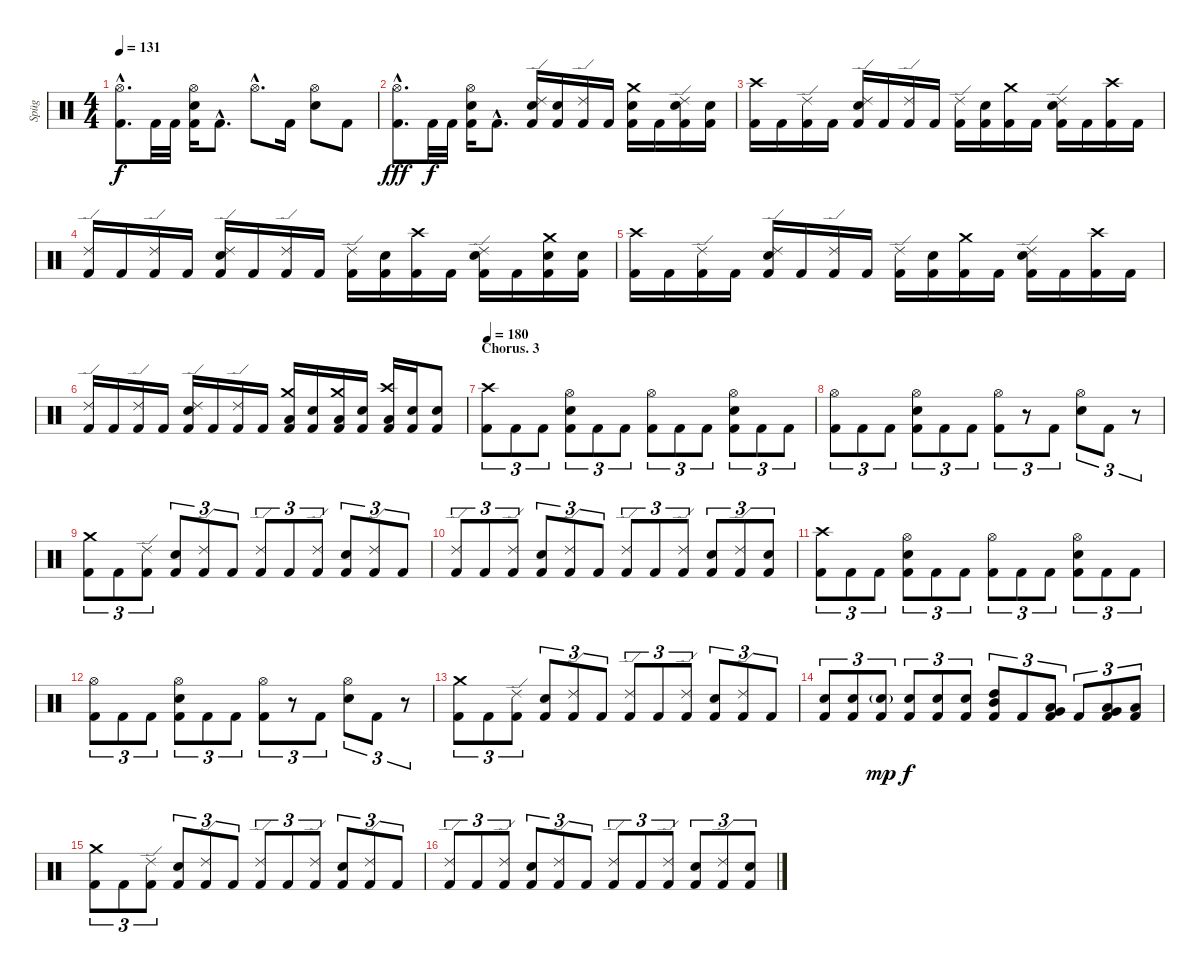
\track ("Spüg" "Spüg") {instrument percussion}
\staff {score}
\articulation defaults
\ts (4 4)
\tempo 131
\clef neutral
\ks c
("Hi-Hat (open)"{hac} "Kick (hit) 2"{hac}).8{d dy f} "Kick (hit) 2".32 "Kick (hit) 2".32 ("Hi-Hat (open)" "Electric Snare (hit)" "Kick (hit) 2").16 "Kick (hit) 2"{hac}.8{d} "Hi-Hat (open)"{hac}.8{d} "Kick (hit) 2".16 ("Hi-Hat (open)" "Electric Snare (hit)").8 "Kick (hit) 2".8 |
("Hi-Hat (open)"{hac} "Kick (hit) 2"{hac}).8{d dy fff} "Kick (hit) 2".32{dy f} "Kick (hit) 2".32 ("Hi-Hat (open)" "Electric Snare (hit)" "Kick (hit) 2").16 "Kick (hit) 2"{hac}.8{d} ("Ride (edge) 2" "Electric Snare (hit)" "Kick (hit) 2").16 ("Electric Snare (hit)" "Kick (hit) 2").16 ("Ride (edge) 2" "Kick (hit) 2").16 "Kick (hit) 2".16 ("Crash medium (hit)" "Electric Snare (hit)" "Kick (hit) 2").16 "Kick (hit) 2".16 ("Ride (edge) 2" "Electric Snare (hit)" "Kick (hit) 2").16 ("Electric Snare (hit)" "Kick (hit) 2").16 |
("Crash high (hit)" "Kick (hit) 2").16 "Kick (hit) 2".16 ("Ride (edge) 2" "Kick (hit) 2").16 "Kick (hit) 2".16 ("Ride (edge) 2" "Electric Snare (hit)" "Kick (hit) 2").16 "Kick (hit) 2".16 ("Ride (edge) 2" "Kick (hit) 2").16 "Kick (hit) 2".16 ("Ride (edge) 2" "Kick (hit) 2").16 ("Electric Snare (hit)" "Kick (hit) 2").16 ("Crash medium (hit)" "Kick (hit) 2").16 "Kick (hit) 2".16 ("Ride (edge) 2" "Electric Snare (hit)" "Kick (hit) 2").16 "Kick (hit) 2".16 ("Crash high (hit)" "Kick (hit) 2").16 "Kick (hit) 2".16 |
("Ride (edge) 2" "Kick (hit) 2").16 "Kick (hit) 2".16 ("Ride (edge) 2" "Kick (hit) 2").16 "Kick (hit) 2".16 ("Ride (edge) 2" "Electric Snare (hit)" "Kick (hit) 2").16 "Kick (hit) 2".16 ("Ride (edge) 2" "Kick (hit) 2").16 "Kick (hit) 2".16 ("Ride (edge) 2" "Kick (hit) 2").16 ("Electric Snare (hit)" "Kick (hit) 2").16 ("Crash high (hit)" "Kick (hit) 2").16 "Kick (hit) 2".16 ("Ride (edge) 2" "Electric Snare (hit)" "Kick (hit) 2").16 "Kick (hit) 2".16 ("Crash medium (hit)" "Electric Snare (hit)" "Kick (hit) 2").16 ("Electric Snare (hit)" "Kick (hit) 2").16 |
("Crash high (hit)" "Kick (hit) 2").16 "Kick (hit) 2".16 ("Ride (edge) 2" "Kick (hit) 2").16 "Kick (hit) 2".16 ("Ride (edge) 2" "Electric Snare (hit)" "Kick (hit) 2").16 "Kick (hit) 2".16 ("Ride (edge) 2" "Kick (hit) 2").16 "Kick (hit) 2".16 ("Ride (edge) 2" "Kick (hit) 2").16 ("Electric Snare (hit)" "Kick (hit) 2").16 ("Crash medium (hit)" "Kick (hit) 2").16 "Kick (hit) 2".16 ("Ride (edge) 2" "Electric Snare (hit)" "Kick (hit) 2").16 "Kick (hit) 2".16 ("Crash high (hit)" "Kick (hit) 2").16 "Kick (hit) 2".16 |
("Ride (edge) 2" "Kick (hit) 2").16 "Kick (hit) 2".16 ("Ride (edge) 2" "Kick (hit) 2").16 "Kick (hit) 2".16 ("Ride (edge) 2" "Electric Snare (hit)" "Kick (hit) 2").16 "Kick (hit) 2".16 ("Ride (edge) 2" "Kick (hit) 2").16 "Kick (hit) 2".16 ("Crash medium (hit)" "Low Floor Tom (hit)" "Kick (hit) 2").16 ("Electric Snare (hit)" "Kick (hit) 2").16 ("Crash medium (hit)" "Low Floor Tom (hit)" "Kick (hit) 2").16 ("Electric Snare (hit)" "Kick (hit) 2").16 ("Crash high (hit)" "Low Floor Tom (hit)" "Kick (hit) 2").16 ("Electric Snare (hit)" "Kick (hit) 2").16 ("Electric Snare (hit)" "Kick (hit) 2").8 |
\section ("" "Chorus. 3")
\tempo 180
("Crash high (hit)" "Kick (hit) 2").8{tu (3 2)} "Kick (hit) 2".8{tu (3 2)} "Kick (hit) 2".8{tu (3 2)} ("Hi-Hat (open)" "Electric Snare (hit)" "Kick (hit) 2").8{tu (3 2)} "Kick (hit) 2".8{tu (3 2)} "Kick (hit) 2".8{tu (3 2)} ("Hi-Hat (open)" "Kick (hit) 2").8{tu (3 2)} "Kick (hit) 2".8{tu (3 2)} "Kick (hit) 2".8{tu (3 2)} ("Hi-Hat (open)" "Electric Snare (hit)" "Kick (hit) 2").8{tu (3 2)} "Kick (hit) 2".8{tu (3 2)} "Kick (hit) 2".8{tu (3 2)} |
("Hi-Hat (open)" "Kick (hit) 2").8{tu (3 2)} "Kick (hit) 2".8{tu (3 2)} "Kick (hit) 2".8{tu (3 2)} ("Hi-Hat (open)" "Electric Snare (hit)" "Kick (hit) 2").8{tu (3 2)} "Kick (hit) 2".8{tu (3 2)} "Kick (hit) 2".8{tu (3 2)} ("Hi-Hat (open)" "Kick (hit) 2").8{tu (3 2)} r.8{tu (3 2)} "Kick (hit) 2".8{tu (3 2)} ("Hi-Hat (open)" "Electric Snare (hit)").8{tu (3 2)} "Kick (hit) 2".8{tu (3 2)} r.8{tu (3 2)} |
("Crash medium (hit)" "Kick (hit) 2").8{tu (3 2)} "Kick (hit) 2".8{tu (3 2)} ("Ride (edge) 2" "Kick (hit) 2").8{tu (3 2)} ("Electric Snare (hit)" "Kick (hit) 2").8{tu (3 2)} ("Ride (edge) 2" "Kick (hit) 2").8{tu (3 2)} "Kick (hit) 2".8{tu (3 2)} ("Ride (edge) 2" "Kick (hit) 2").8{tu (3 2)} "Kick (hit) 2".8{tu (3 2)} ("Ride (edge) 2" "Kick (hit) 2").8{tu (3 2)} ("Electric Snare (hit)" "Kick (hit) 2").8{tu (3 2)} ("Ride (edge) 2" "Kick (hit) 2").8{tu (3 2)} "Kick (hit) 2".8{tu (3 2)} |
("Ride (edge) 2" "Kick (hit) 2").8{tu (3 2)} "Kick (hit) 2".8{tu (3 2)} ("Ride (edge) 2" "Kick (hit) 2").8{tu (3 2)} ("Electric Snare (hit)" "Kick (hit) 2").8{tu (3 2)} ("Ride (edge) 2" "Kick (hit) 2").8{tu (3 2)} "Kick (hit) 2".8{tu (3 2)} ("Ride (edge) 2" "Kick (hit) 2").8{tu (3 2)} "Kick (hit) 2".8{tu (3 2)} ("Ride (edge) 2" "Kick (hit) 2").8{tu (3 2)} ("Electric Snare (hit)" "Kick (hit) 2").8{tu (3 2)} ("Ride (edge) 2" "Kick (hit) 2").8{tu (3 2)} ("Electric Snare (hit)" "Kick (hit) 2").8{tu (3 2)} |
("Crash high (hit)" "Kick (hit) 2").8{tu (3 2)} "Kick (hit) 2".8{tu (3 2)} "Kick (hit) 2".8{tu (3 2)} ("Hi-Hat (open)" "Electric Snare (hit)" "Kick (hit) 2").8{tu (3 2)} "Kick (hit) 2".8{tu (3 2)} "Kick (hit) 2".8{tu (3 2)} ("Hi-Hat (open)" "Kick (hit) 2").8{tu (3 2)} "Kick (hit) 2".8{tu (3 2)} "Kick (hit) 2".8{tu (3 2)} ("Hi-Hat (open)" "Electric Snare (hit)" "Kick (hit) 2").8{tu (3 2)} "Kick (hit) 2".8{tu (3 2)} "Kick (hit) 2".8{tu (3 2)} |
("Hi-Hat (open)" "Kick (hit) 2").8{tu (3 2)} "Kick (hit) 2".8{tu (3 2)} "Kick (hit) 2".8{tu (3 2)} ("Hi-Hat (open)" "Electric Snare (hit)" "Kick (hit) 2").8{tu (3 2)} "Kick (hit) 2".8{tu (3 2)} "Kick (hit) 2".8{tu (3 2)} ("Hi-Hat (open)" "Kick (hit) 2").8{tu (3 2)} r.8{tu (3 2)} "Kick (hit) 2".8{tu (3 2)} ("Hi-Hat (open)" "Electric Snare (hit)").8{tu (3 2)} "Kick (hit) 2".8{tu (3 2)} r.8{tu (3 2)} |
("Crash medium (hit)" "Kick (hit) 2").8{tu (3 2)} "Kick (hit) 2".8{tu (3 2)} ("Ride (edge) 2" "Kick (hit) 2").8{tu (3 2)} ("Electric Snare (hit)" "Kick (hit) 2").8{tu (3 2)} ("Ride (edge) 2" "Kick (hit) 2").8{tu (3 2)} "Kick (hit) 2".8{tu (3 2)} ("Ride (edge) 2" "Kick (hit) 2").8{tu (3 2)} "Kick (hit) 2".8{tu (3 2)} ("Ride (edge) 2" "Kick (hit) 2").8{tu (3 2)} ("Electric Snare (hit)" "Kick (hit) 2").8{tu (3 2)} ("Ride (edge) 2" "Kick (hit) 2").8{tu (3 2)} "Kick (hit) 2".8{tu (3 2)} |
("Electric Snare (hit)" "Kick (hit) 2").8{tu (3 2)} ("Electric Snare (hit)" "Kick (hit) 2").8{tu (3 2)} ("Electric Snare (hit)"{g} "Kick (hit) 2").8{tu (3 2) dy mp} ("Electric Snare (hit)" "Kick (hit) 2").8{tu (3 2) dy f} ("Electric Snare (hit)" "Kick (hit) 2").8{tu (3 2)} ("Electric Snare (hit)" "Kick (hit) 2").8{tu (3 2)} ("High Tom (hit)" "Mid Tom (hit)" "Kick (hit) 2").8{tu (3 2)} "Kick (hit) 2".8{tu (3 2)} ("Very Low Tom (hit)" "Low Tom (hit)" "Kick (hit) 2").8{tu (3 2)} "Kick (hit) 2".8{tu (3 2)} ("Very Low Tom (hit)" "Low Tom (hit)" "Kick (hit) 2").8{tu (3 2)} ("Low Floor Tom (hit)" "Kick (hit) 2").8{tu (3 2)} |
("Crash medium (hit)" "Kick (hit) 2").8{tu (3 2)} "Kick (hit) 2".8{tu (3 2)} ("Ride (edge) 2" "Kick (hit) 2").8{tu (3 2)} ("Electric Snare (hit)" "Kick (hit) 2").8{tu (3 2)} ("Ride (edge) 2" "Kick (hit) 2").8{tu (3 2)} "Kick (hit) 2".8{tu (3 2)} ("Ride (edge) 2" "Kick (hit) 2").8{tu (3 2)} "Kick (hit) 2".8{tu (3 2)} ("Ride (edge) 2" "Kick (hit) 2").8{tu (3 2)} ("Electric Snare (hit)" "Kick (hit) 2").8{tu (3 2)} ("Ride (edge) 2" "Kick (hit) 2").8{tu (3 2)} "Kick (hit) 2".8{tu (3 2)} |
("Ride (edge) 2" "Kick (hit) 2").8{tu (3 2)} "Kick (hit) 2".8{tu (3 2)} ("Ride (edge) 2" "Kick (hit) 2").8{tu (3 2)} ("Electric Snare (hit)" "Kick (hit) 2").8{tu (3 2)} ("Ride (edge) 2" "Kick (hit) 2").8{tu (3 2)} "Kick (hit) 2".8{tu (3 2)} ("Ride (edge) 2" "Kick (hit) 2").8{tu (3 2)} "Kick (hit) 2".8{tu (3 2)} ("Ride (edge) 2" "Kick (hit) 2").8{tu (3 2)} ("Electric Snare (hit)" "Kick (hit) 2").8{tu (3 2)} ("Ride (edge) 2" "Kick (hit) 2").8{tu (3 2)} ("Electric Snare (hit)" "Kick (hit) 2").8{tu (3 2)}
